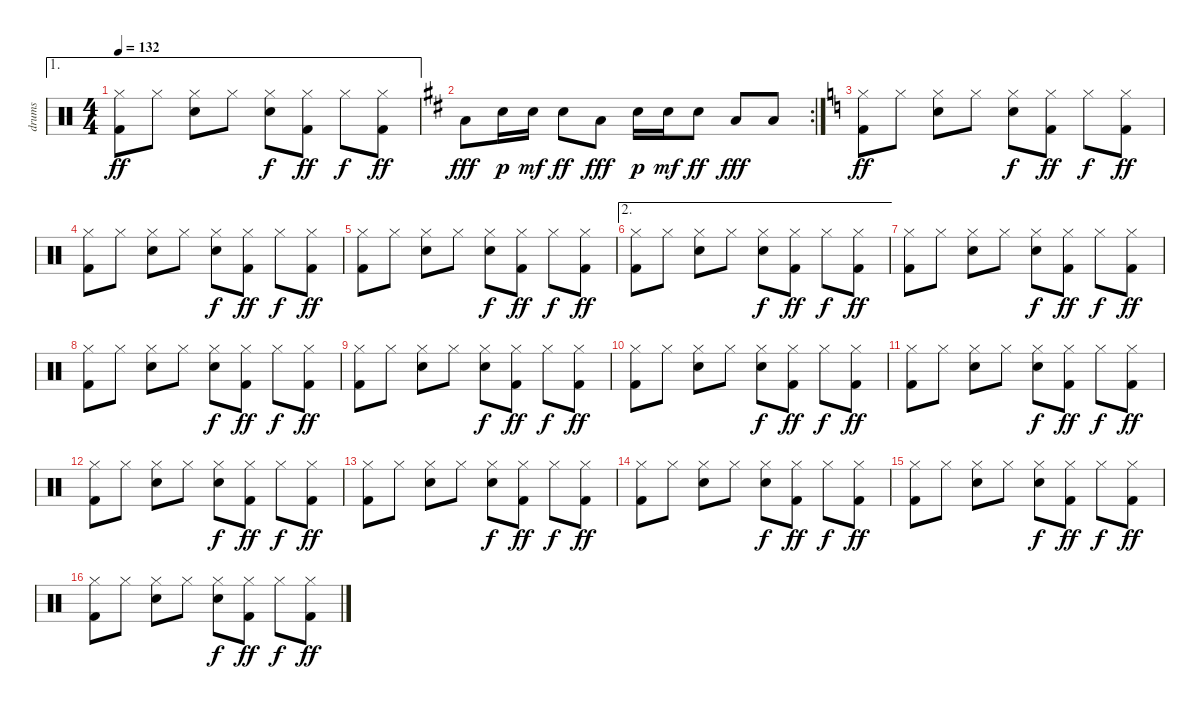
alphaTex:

\track ("drums" "drums") {instrument percussion}
\staff {score}
\articulation defaults
\ae 1
\ts (4 4)
\tempo 132
\clef neutral
\ks c
("Hi-Hat (closed)" "Kick (hit) 2").8{dy ff} "Hi-Hat (closed)".8 ("Hi-Hat (closed)" "Electric Snare (hit)").8 "Hi-Hat (closed)".8 ("Hi-Hat (closed)" "Electric Snare (hit)").8{dy f} ("Kick (hit) 2" "Hi-Hat (closed)").8{dy ff} "Hi-Hat (closed)".8{dy f} ("Kick (hit) 2" "Hi-Hat (closed)").8{dy ff} |
\rc 2
\ks d "Low Tom (hit)".8{dy fff} "Electric Snare (hit)".16{dy p} "Electric Snare (hit)".16{dy mf} "Electric Snare (hit)".8{dy ff} "Low Tom (hit)".8{dy fff} "Electric Snare (hit)".16{dy p} "Electric Snare (hit)".16{dy mf} "Electric Snare (hit)".8{dy ff} "Low Tom (hit)".8{dy fff} "Low Tom (hit)".8
|
\ks c
("Hi-Hat (closed)" "Kick (hit) 2").8{dy ff} "Hi-Hat (closed)".8 ("Hi-Hat (closed)" "Electric Snare (hit)").8 "Hi-Hat (closed)".8 ("Hi-Hat (closed)" "Electric Snare (hit)").8{dy f} ("Kick (hit) 2" "Hi-Hat (closed)").8{dy ff} "Hi-Hat (closed)".8{dy f} ("Kick (hit) 2" "Hi-Hat (closed)").8{dy ff} |
("Hi-Hat (closed)" "Kick (hit) 2").8 "Hi-Hat (closed)".8 ("Hi-Hat (closed)" "Electric Snare (hit)").8 "Hi-Hat (closed)".8 ("Hi-Hat (closed)" "Electric Snare (hit)").8{dy f} ("Kick (hit) 2" "Hi-Hat (closed)").8{dy ff} "Hi-Hat (closed)".8{dy f} ("Kick (hit) 2" "Hi-Hat (closed)").8{dy ff} |
("Hi-Hat (closed)" "Kick (hit) 2").8 "Hi-Hat (closed)".8 ("Hi-Hat (closed)" "Electric Snare (hit)").8 "Hi-Hat (closed)".8 ("Hi-Hat (closed)" "Electric Snare (hit)").8{dy f} ("Kick (hit) 2" "Hi-Hat (closed)").8{dy ff} "Hi-Hat (closed)".8{dy f} ("Kick (hit) 2" "Hi-Hat (closed)").8{dy ff} |
\ae 2
("Hi-Hat (closed)" "Kick (hit) 2").8 "Hi-Hat (closed)".8 ("Hi-Hat (closed)" "Electric Snare (hit)").8 "Hi-Hat (closed)".8 ("Hi-Hat (closed)" "Electric Snare (hit)").8{dy f} ("Kick (hit) 2" "Hi-Hat (closed)").8{dy ff} "Hi-Hat (closed)".8{dy f} ("Kick (hit) 2" "Hi-Hat (closed)").8{dy ff} |
("Hi-Hat (closed)" "Kick (hit) 2").8 "Hi-Hat (closed)".8 ("Hi-Hat (closed)" "Electric Snare (hit)").8 "Hi-Hat (closed)".8 ("Hi-Hat (closed)" "Electric Snare (hit)").8{dy f} ("Kick (hit) 2" "Hi-Hat (closed)").8{dy ff} "Hi-Hat (closed)".8{dy f} ("Kick (hit) 2" "Hi-Hat (closed)").8{dy ff} |
("Hi-Hat (closed)" "Kick (hit) 2").8 "Hi-Hat (closed)".8 ("Hi-Hat (closed)" "Electric Snare (hit)").8 "Hi-Hat (closed)".8 ("Hi-Hat (closed)" "Electric Snare (hit)").8{dy f} ("Kick (hit) 2" "Hi-Hat (closed)").8{dy ff} "Hi-Hat (closed)".8{dy f} ("Kick (hit) 2" "Hi-Hat (closed)").8{dy ff} |
("Hi-Hat (closed)" "Kick (hit) 2").8 "Hi-Hat (closed)".8 ("Hi-Hat (closed)" "Electric Snare (hit)").8 "Hi-Hat (closed)".8 ("Hi-Hat (closed)" "Electric Snare (hit)").8{dy f} ("Kick (hit) 2" "Hi-Hat (closed)").8{dy ff} "Hi-Hat (closed)".8{dy f} ("Kick (hit) 2" "Hi-Hat (closed)").8{dy ff} |
("Hi-Hat (closed)" "Kick (hit) 2").8 "Hi-Hat (closed)".8 ("Hi-Hat (closed)" "Electric Snare (hit)").8 "Hi-Hat (closed)".8 ("Hi-Hat (closed)" "Electric Snare (hit)").8{dy f} ("Kick (hit) 2" "Hi-Hat (closed)").8{dy ff} "Hi-Hat (closed)".8{dy f} ("Kick (hit) 2" "Hi-Hat (closed)").8{dy ff} |
("Hi-Hat (closed)" "Kick (hit) 2").8 "Hi-Hat (closed)".8 ("Hi-Hat (closed)" "Electric Snare (hit)").8 "Hi-Hat (closed)".8 ("Hi-Hat (closed)" "Electric Snare (hit)").8{dy f} ("Kick (hit) 2" "Hi-Hat (closed)").8{dy ff} "Hi-Hat (closed)".8{dy f} ("Kick (hit) 2" "Hi-Hat (closed)").8{dy ff} |
("Hi-Hat (closed)" "Kick (hit) 2").8 "Hi-Hat (closed)".8 ("Hi-Hat (closed)" "Electric Snare (hit)").8 "Hi-Hat (closed)".8 ("Hi-Hat (closed)" "Electric Snare (hit)").8{dy f} ("Kick (hit) 2" "Hi-Hat (closed)").8{dy ff} "Hi-Hat (closed)".8{dy f} ("Kick (hit) 2" "Hi-Hat (closed)").8{dy ff} |
("Hi-Hat (closed)" "Kick (hit) 2").8 "Hi-Hat (closed)".8 ("Hi-Hat (closed)" "Electric Snare (hit)").8 "Hi-Hat (closed)".8 ("Hi-Hat (closed)" "Electric Snare (hit)").8{dy f} ("Kick (hit) 2" "Hi-Hat (closed)").8{dy ff} "Hi-Hat (closed)".8{dy f} ("Kick (hit) 2" "Hi-Hat (closed)").8{dy ff} |
("Hi-Hat (closed)" "Kick (hit) 2").8 "Hi-Hat (closed)".8 ("Hi-Hat (closed)" "Electric Snare (hit)").8 "Hi-Hat (closed)".8 ("Hi-Hat (closed)" "Electric Snare (hit)").8{dy f} ("Kick (hit) 2" "Hi-Hat (closed)").8{dy ff} "Hi-Hat (closed)".8{dy f} ("Kick (hit) 2" "Hi-Hat (closed)").8{dy ff} |
("Hi-Hat (closed)" "Kick (hit) 2").8 "Hi-Hat (closed)".8 ("Hi-Hat (closed)" "Electric Snare (hit)").8 "Hi-Hat (closed)".8 ("Hi-Hat (closed)" "Electric Snare (hit)").8{dy f} ("Kick (hit) 2" "Hi-Hat (closed)").8{dy ff} "Hi-Hat (closed)".8{dy f} ("Kick (hit) 2" "Hi-Hat (closed)").8{dy ff} |
("Hi-Hat (closed)" "Kick (hit) 2").8 "Hi-Hat (closed)".8 ("Hi-Hat (closed)" "Electric Snare (hit)").8 "Hi-Hat (closed)".8 ("Hi-Hat (closed)" "Electric Snare (hit)").8{dy f} ("Kick (hit) 2" "Hi-Hat (closed)").8{dy ff} "Hi-Hat (closed)".8{dy f} ("Kick (hit) 2" "Hi-Hat (closed)").8{dy ff}
